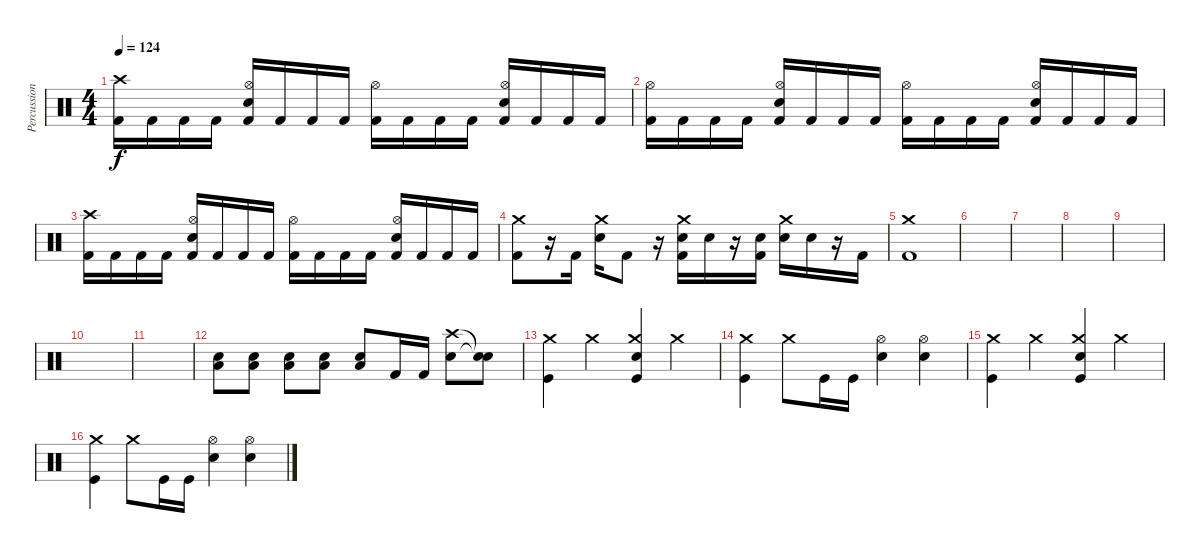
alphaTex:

\track ("Percussion" "Percussion") {instrument percussion}
\staff {score}
\articulation defaults
\ts (4 4)
\tempo 124
\clef neutral
\ks c
("Crash high (hit)" "Kick (hit) 2").16{dy f} "Kick (hit) 2".16 "Kick (hit) 2".16 "Kick (hit) 2".16 ("Hi-Hat (open)" "Electric Snare (hit)" "Kick (hit) 2").16 "Kick (hit) 2".16 "Kick (hit) 2".16 "Kick (hit) 2".16 ("Hi-Hat (open)" "Kick (hit) 2").16 "Kick (hit) 2".16 "Kick (hit) 2".16 "Kick (hit) 2".16 ("Hi-Hat (open)" "Electric Snare (hit)" "Kick (hit) 2").16 "Kick (hit) 2".16 "Kick (hit) 2".16 "Kick (hit) 2".16 |
("Hi-Hat (open)" "Kick (hit) 2").16 "Kick (hit) 2".16 "Kick (hit) 2".16 "Kick (hit) 2".16 ("Hi-Hat (open)" "Electric Snare (hit)" "Kick (hit) 2").16 "Kick (hit) 2".16 "Kick (hit) 2".16 "Kick (hit) 2".16 ("Hi-Hat (open)" "Kick (hit) 2").16 "Kick (hit) 2".16 "Kick (hit) 2".16 "Kick (hit) 2".16 ("Hi-Hat (open)" "Electric Snare (hit)" "Kick (hit) 2").16 "Kick (hit) 2".16 "Kick (hit) 2".16 "Kick (hit) 2".16 |
("Crash high (hit)" "Kick (hit) 2").16 "Kick (hit) 2".16 "Kick (hit) 2".16 "Kick (hit) 2".16 ("Hi-Hat (open)" "Electric Snare (hit)" "Kick (hit) 2").16 "Kick (hit) 2".16 "Kick (hit) 2".16 "Kick (hit) 2".16 ("Hi-Hat (open)" "Kick (hit) 2").16 "Kick (hit) 2".16 "Kick (hit) 2".16 "Kick (hit) 2".16 ("Hi-Hat (open)" "Electric Snare (hit)" "Kick (hit) 2").16 "Kick (hit) 2".16 "Kick (hit) 2".16 "Kick (hit) 2".16 |
("Crash medium (hit)" "Kick (hit) 2").8 r.16 "Kick (hit) 2".16 ("Crash medium (hit)" "Electric Snare (hit)").16 "Kick (hit) 2".8 r.16 ("Crash medium (hit)" "Electric Snare (hit)" "Kick (hit) 2").16 "Electric Snare (hit)".16 r.16 ("Electric Snare (hit)" "Kick (hit) 2").16 ("Crash medium (hit)" "Electric Snare (hit)").16 "Electric Snare (hit)".16 r.16 "Kick (hit) 2".16 |
("Crash medium (hit)" "Kick (hit) 2").1 |
|
|
|
|
|
|
("Low Floor Tom (hit)" "Electric Snare (hit)").8 ("Low Floor Tom (hit)" "Electric Snare (hit)").8 ("Low Floor Tom (hit)" "Electric Snare (hit)").8 ("Low Floor Tom (hit)" "Electric Snare (hit)").8 ("Low Floor Tom (hit)" "Electric Snare (hit)").8 "Kick (hit) 2".16 "Kick (hit) 2".16 ("Crash high (hit)" "Electric Snare (hit)").8 ("Snare (hit)"{t} "Snare (hit)"{t}).8 |
("Crash medium (hit)" "Kick (hit)").4 "Crash medium (hit)".4 ("Kick (hit)" "Crash medium (hit)" "Electric Snare (hit)").4 "Crash medium (hit)".4 |
("Crash medium (hit)" "Kick (hit)").4 "Crash medium (hit)".8 "Kick (hit)".16 "Kick (hit)".16 ("Hi-Hat (open)" "Electric Snare (hit)").4 ("Hi-Hat (open)" "Electric Snare (hit)").4 |
("Crash medium (hit)" "Kick (hit)").4 "Crash medium (hit)".4 ("Kick (hit)" "Crash medium (hit)" "Electric Snare (hit)").4 "Crash medium (hit)".4 |
("Crash medium (hit)" "Kick (hit)").4 "Crash medium (hit)".8 "Kick (hit)".16 "Kick (hit)".16 ("Hi-Hat (open)" "Electric Snare (hit)").4 ("Hi-Hat (open)" "Electric Snare (hit)").4
